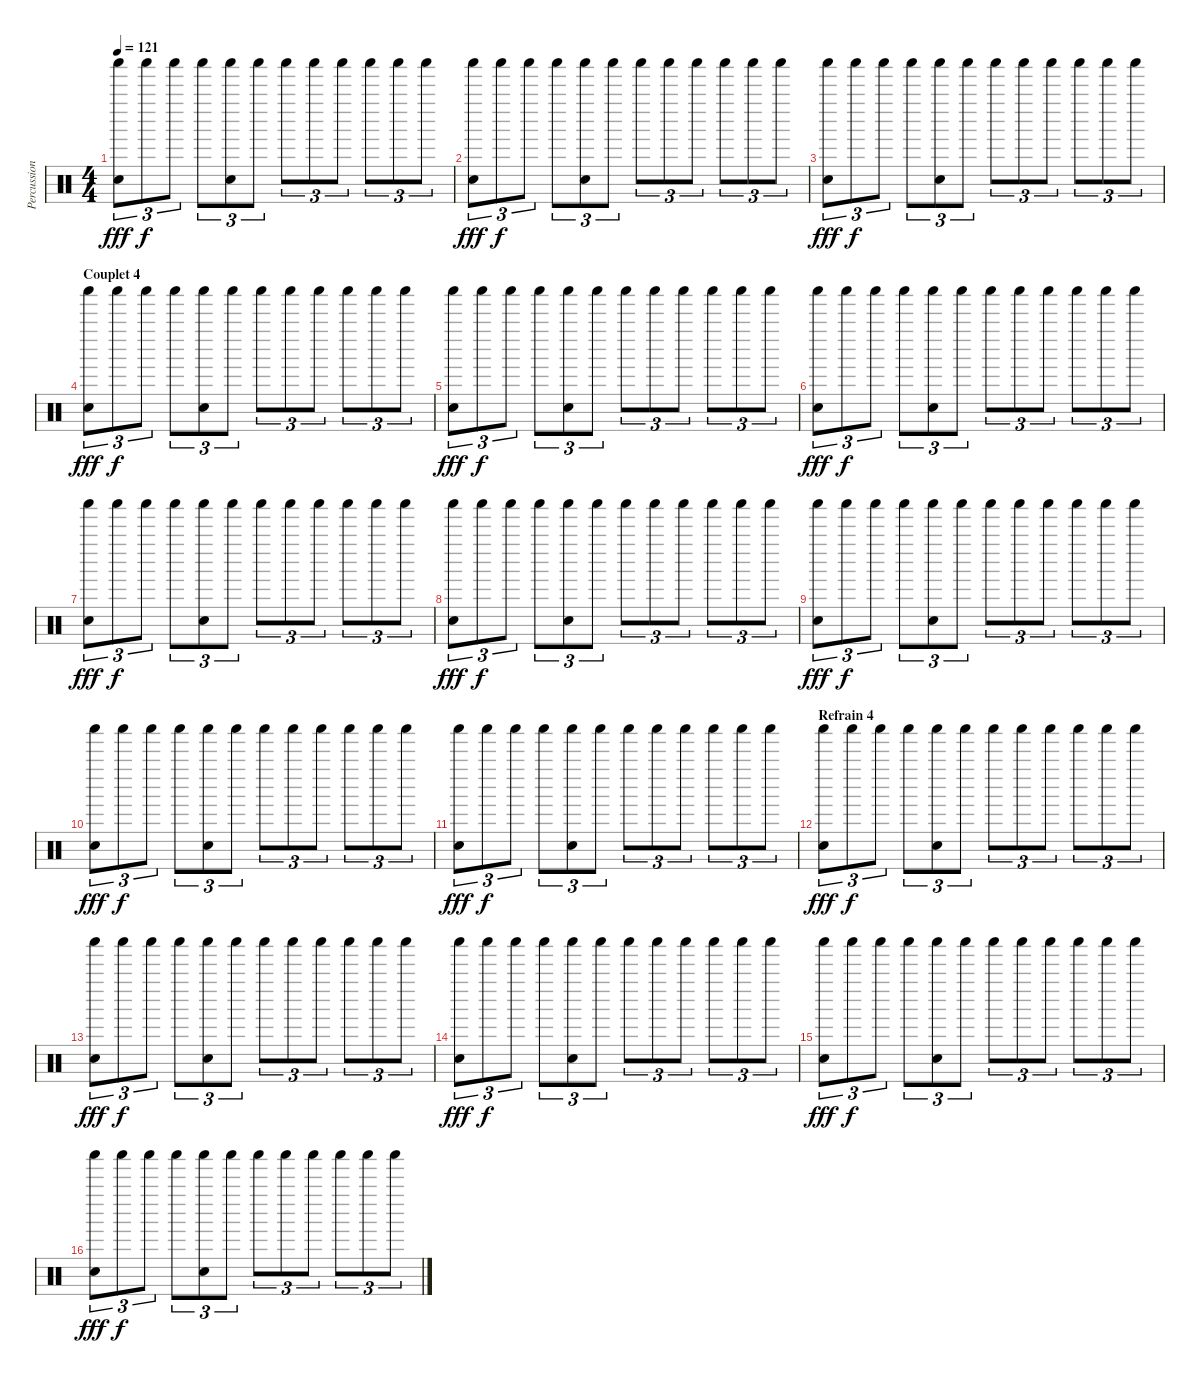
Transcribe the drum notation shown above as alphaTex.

\track ("Percussions" "Percussion") {instrument percussion}
\staff {score}
\articulation defaults
\ts (4 4)
\tempo 121
\clef neutral
\ks c
("Shaker (hit)" "Electric Snare (hit)").8{tu (3 2) dy fff} "Shaker (hit)".8{tu (3 2) dy f} "Shaker (hit)".8{tu (3 2)} "Shaker (hit)".8{tu (3 2)} ("Shaker (hit)" "Electric Snare (hit)").8{tu (3 2)} "Shaker (hit)".8{tu (3 2)} "Shaker (hit)".8{tu (3 2)} "Shaker (hit)".8{tu (3 2)} "Shaker (hit)".8{tu (3 2)} "Shaker (hit)".8{tu (3 2)} "Shaker (hit)".8{tu (3 2)} "Shaker (hit)".8{tu (3 2)} |
("Shaker (hit)" "Electric Snare (hit)").8{tu (3 2) dy fff} "Shaker (hit)".8{tu (3 2) dy f} "Shaker (hit)".8{tu (3 2)} "Shaker (hit)".8{tu (3 2)} ("Shaker (hit)" "Electric Snare (hit)").8{tu (3 2)} "Shaker (hit)".8{tu (3 2)} "Shaker (hit)".8{tu (3 2)} "Shaker (hit)".8{tu (3 2)} "Shaker (hit)".8{tu (3 2)} "Shaker (hit)".8{tu (3 2)} "Shaker (hit)".8{tu (3 2)} "Shaker (hit)".8{tu (3 2)} |
("Shaker (hit)" "Electric Snare (hit)").8{tu (3 2) dy fff} "Shaker (hit)".8{tu (3 2) dy f} "Shaker (hit)".8{tu (3 2)} "Shaker (hit)".8{tu (3 2)} ("Shaker (hit)" "Electric Snare (hit)").8{tu (3 2)} "Shaker (hit)".8{tu (3 2)} "Shaker (hit)".8{tu (3 2)} "Shaker (hit)".8{tu (3 2)} "Shaker (hit)".8{tu (3 2)} "Shaker (hit)".8{tu (3 2)} "Shaker (hit)".8{tu (3 2)} "Shaker (hit)".8{tu (3 2)} |
\section ("" "Couplet 4")
("Shaker (hit)" "Electric Snare (hit)").8{tu (3 2) dy fff} "Shaker (hit)".8{tu (3 2) dy f} "Shaker (hit)".8{tu (3 2)} "Shaker (hit)".8{tu (3 2)} ("Shaker (hit)" "Electric Snare (hit)").8{tu (3 2)} "Shaker (hit)".8{tu (3 2)} "Shaker (hit)".8{tu (3 2)} "Shaker (hit)".8{tu (3 2)} "Shaker (hit)".8{tu (3 2)} "Shaker (hit)".8{tu (3 2)} "Shaker (hit)".8{tu (3 2)} "Shaker (hit)".8{tu (3 2)} |
("Shaker (hit)" "Electric Snare (hit)").8{tu (3 2) dy fff} "Shaker (hit)".8{tu (3 2) dy f} "Shaker (hit)".8{tu (3 2)} "Shaker (hit)".8{tu (3 2)} ("Shaker (hit)" "Electric Snare (hit)").8{tu (3 2)} "Shaker (hit)".8{tu (3 2)} "Shaker (hit)".8{tu (3 2)} "Shaker (hit)".8{tu (3 2)} "Shaker (hit)".8{tu (3 2)} "Shaker (hit)".8{tu (3 2)} "Shaker (hit)".8{tu (3 2)} "Shaker (hit)".8{tu (3 2)} |
("Shaker (hit)" "Electric Snare (hit)").8{tu (3 2) dy fff} "Shaker (hit)".8{tu (3 2) dy f} "Shaker (hit)".8{tu (3 2)} "Shaker (hit)".8{tu (3 2)} ("Shaker (hit)" "Electric Snare (hit)").8{tu (3 2)} "Shaker (hit)".8{tu (3 2)} "Shaker (hit)".8{tu (3 2)} "Shaker (hit)".8{tu (3 2)} "Shaker (hit)".8{tu (3 2)} "Shaker (hit)".8{tu (3 2)} "Shaker (hit)".8{tu (3 2)} "Shaker (hit)".8{tu (3 2)} |
("Shaker (hit)" "Electric Snare (hit)").8{tu (3 2) dy fff} "Shaker (hit)".8{tu (3 2) dy f} "Shaker (hit)".8{tu (3 2)} "Shaker (hit)".8{tu (3 2)} ("Shaker (hit)" "Electric Snare (hit)").8{tu (3 2)} "Shaker (hit)".8{tu (3 2)} "Shaker (hit)".8{tu (3 2)} "Shaker (hit)".8{tu (3 2)} "Shaker (hit)".8{tu (3 2)} "Shaker (hit)".8{tu (3 2)} "Shaker (hit)".8{tu (3 2)} "Shaker (hit)".8{tu (3 2)} |
("Shaker (hit)" "Electric Snare (hit)").8{tu (3 2) dy fff} "Shaker (hit)".8{tu (3 2) dy f} "Shaker (hit)".8{tu (3 2)} "Shaker (hit)".8{tu (3 2)} ("Shaker (hit)" "Electric Snare (hit)").8{tu (3 2)} "Shaker (hit)".8{tu (3 2)} "Shaker (hit)".8{tu (3 2)} "Shaker (hit)".8{tu (3 2)} "Shaker (hit)".8{tu (3 2)} "Shaker (hit)".8{tu (3 2)} "Shaker (hit)".8{tu (3 2)} "Shaker (hit)".8{tu (3 2)} |
("Shaker (hit)" "Electric Snare (hit)").8{tu (3 2) dy fff} "Shaker (hit)".8{tu (3 2) dy f} "Shaker (hit)".8{tu (3 2)} "Shaker (hit)".8{tu (3 2)} ("Shaker (hit)" "Electric Snare (hit)").8{tu (3 2)} "Shaker (hit)".8{tu (3 2)} "Shaker (hit)".8{tu (3 2)} "Shaker (hit)".8{tu (3 2)} "Shaker (hit)".8{tu (3 2)} "Shaker (hit)".8{tu (3 2)} "Shaker (hit)".8{tu (3 2)} "Shaker (hit)".8{tu (3 2)} |
("Shaker (hit)" "Electric Snare (hit)").8{tu (3 2) dy fff} "Shaker (hit)".8{tu (3 2) dy f} "Shaker (hit)".8{tu (3 2)} "Shaker (hit)".8{tu (3 2)} ("Shaker (hit)" "Electric Snare (hit)").8{tu (3 2)} "Shaker (hit)".8{tu (3 2)} "Shaker (hit)".8{tu (3 2)} "Shaker (hit)".8{tu (3 2)} "Shaker (hit)".8{tu (3 2)} "Shaker (hit)".8{tu (3 2)} "Shaker (hit)".8{tu (3 2)} "Shaker (hit)".8{tu (3 2)} |
("Shaker (hit)" "Electric Snare (hit)").8{tu (3 2) dy fff} "Shaker (hit)".8{tu (3 2) dy f} "Shaker (hit)".8{tu (3 2)} "Shaker (hit)".8{tu (3 2)} ("Shaker (hit)" "Electric Snare (hit)").8{tu (3 2)} "Shaker (hit)".8{tu (3 2)} "Shaker (hit)".8{tu (3 2)} "Shaker (hit)".8{tu (3 2)} "Shaker (hit)".8{tu (3 2)} "Shaker (hit)".8{tu (3 2)} "Shaker (hit)".8{tu (3 2)} "Shaker (hit)".8{tu (3 2)} |
\section ("" "Refrain 4")
("Shaker (hit)" "Electric Snare (hit)").8{tu (3 2) dy fff} "Shaker (hit)".8{tu (3 2) dy f} "Shaker (hit)".8{tu (3 2)} "Shaker (hit)".8{tu (3 2)} ("Shaker (hit)" "Electric Snare (hit)").8{tu (3 2)} "Shaker (hit)".8{tu (3 2)} "Shaker (hit)".8{tu (3 2)} "Shaker (hit)".8{tu (3 2)} "Shaker (hit)".8{tu (3 2)} "Shaker (hit)".8{tu (3 2)} "Shaker (hit)".8{tu (3 2)} "Shaker (hit)".8{tu (3 2)} |
("Shaker (hit)" "Electric Snare (hit)").8{tu (3 2) dy fff} "Shaker (hit)".8{tu (3 2) dy f} "Shaker (hit)".8{tu (3 2)} "Shaker (hit)".8{tu (3 2)} ("Shaker (hit)" "Electric Snare (hit)").8{tu (3 2)} "Shaker (hit)".8{tu (3 2)} "Shaker (hit)".8{tu (3 2)} "Shaker (hit)".8{tu (3 2)} "Shaker (hit)".8{tu (3 2)} "Shaker (hit)".8{tu (3 2)} "Shaker (hit)".8{tu (3 2)} "Shaker (hit)".8{tu (3 2)} |
("Shaker (hit)" "Electric Snare (hit)").8{tu (3 2) dy fff} "Shaker (hit)".8{tu (3 2) dy f} "Shaker (hit)".8{tu (3 2)} "Shaker (hit)".8{tu (3 2)} ("Shaker (hit)" "Electric Snare (hit)").8{tu (3 2)} "Shaker (hit)".8{tu (3 2)} "Shaker (hit)".8{tu (3 2)} "Shaker (hit)".8{tu (3 2)} "Shaker (hit)".8{tu (3 2)} "Shaker (hit)".8{tu (3 2)} "Shaker (hit)".8{tu (3 2)} "Shaker (hit)".8{tu (3 2)} |
("Shaker (hit)" "Electric Snare (hit)").8{tu (3 2) dy fff} "Shaker (hit)".8{tu (3 2) dy f} "Shaker (hit)".8{tu (3 2)} "Shaker (hit)".8{tu (3 2)} ("Shaker (hit)" "Electric Snare (hit)").8{tu (3 2)} "Shaker (hit)".8{tu (3 2)} "Shaker (hit)".8{tu (3 2)} "Shaker (hit)".8{tu (3 2)} "Shaker (hit)".8{tu (3 2)} "Shaker (hit)".8{tu (3 2)} "Shaker (hit)".8{tu (3 2)} "Shaker (hit)".8{tu (3 2)} |
("Shaker (hit)" "Electric Snare (hit)").8{tu (3 2) dy fff} "Shaker (hit)".8{tu (3 2) dy f} "Shaker (hit)".8{tu (3 2)} "Shaker (hit)".8{tu (3 2)} ("Shaker (hit)" "Electric Snare (hit)").8{tu (3 2)} "Shaker (hit)".8{tu (3 2)} "Shaker (hit)".8{tu (3 2)} "Shaker (hit)".8{tu (3 2)} "Shaker (hit)".8{tu (3 2)} "Shaker (hit)".8{tu (3 2)} "Shaker (hit)".8{tu (3 2)} "Shaker (hit)".8{tu (3 2)}
